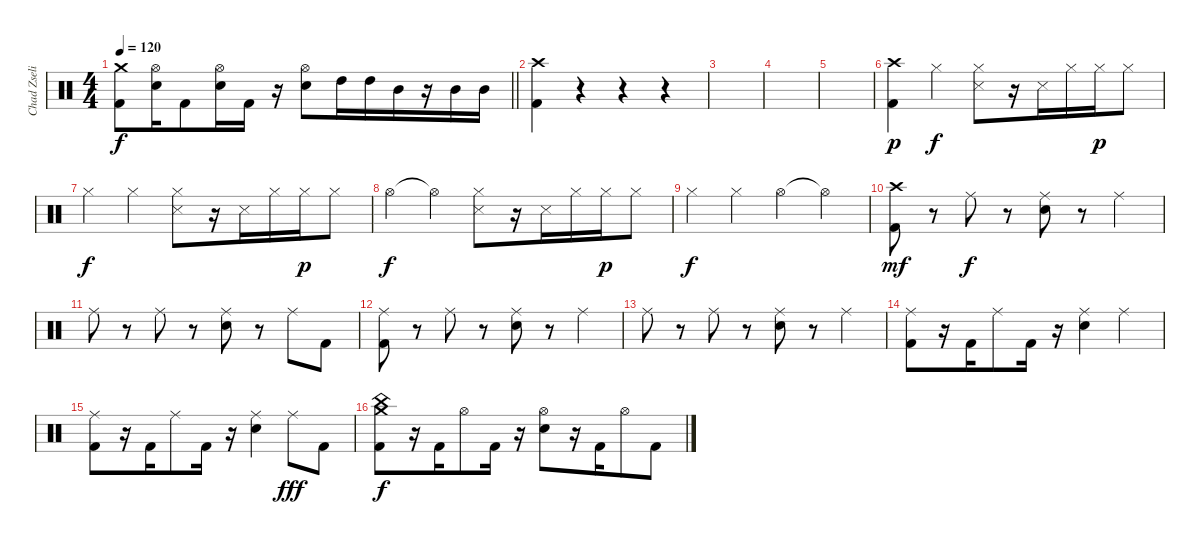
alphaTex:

\track ("Chad Zseliga (Drums)" "Chad Zseli") {instrument percussion}
\staff {score}
\articulation defaults
\ts (4 4)
\tempo 120
\clef neutral
\barLineRight lightlight
\ks c
("Crash medium (hit)" "Kick (hit) 2").8{dy f} ("Hi-Hat (open)" "Snare (hit) 2").16 "Kick (hit) 2".8{beam merge} ("Hi-Hat (open)" "Snare (hit) 2").16 "Kick (hit) 2".16 r.16 ("Hi-Hat (open)" "Snare (hit) 2").8 "High Tom (hit)".16 "High Tom (hit)".16{beam merge} "Mid Tom (hit)".16 r.16 "Mid Tom (hit)".16 "Mid Tom (hit)".16 |
("Crash high (hit)" "Kick (hit) 2").4 r.4 r.4 r.4 |
|
|
|
("Crash high (hit)" "Kick (hit) 2").4{dy p} "Hi-Hat (closed)".4{dy f} ("Hi-Hat (closed)" "Snare (side stick) 3").8 r.16 "Snare (side stick) 3".16{beam merge} "Hi-Hat (closed)".16 "Hi-Hat (closed)".16{dy p} "Hi-Hat (closed)".8 |
"Hi-Hat (closed)".4{dy f} "Hi-Hat (closed)".4 ("Hi-Hat (closed)" "Snare (side stick) 3").8 r.16 "Snare (side stick) 3".16{beam merge} "Hi-Hat (closed)".16 "Hi-Hat (closed)".16{dy p} "Hi-Hat (closed)".8 |
"Hi-Hat (open)".4{dy f} "Hi-Hat (open)"{t}.4 ("Hi-Hat (closed)" "Snare (side stick) 3").8 r.16 "Snare (side stick) 3".16{beam merge} "Hi-Hat (closed)".16 "Hi-Hat (closed)".16{dy p} "Hi-Hat (closed)".8 |
"Hi-Hat (closed)".4{dy f} "Hi-Hat (closed)".4 "Hi-Hat (open)".4 "Hi-Hat (open)"{t}.4 |
("Crash high (hit)" "Kick (hit) 2").8{dy mf} r.8 "Ride (middle)".8{dy f} r.8 ("Ride (middle)" "Snare (hit) 2").8 r.8 "Ride (middle)".4 |
"Ride (middle)".8 r.8 "Ride (middle)".8 r.8 ("Ride (middle)" "Snare (hit) 2").8 r.8 "Ride (middle)".8 "Kick (hit) 2".8 |
("Ride (middle)" "Kick (hit) 2").8 r.8 "Ride (middle)".8 r.8 ("Ride (middle)" "Snare (hit) 2").8 r.8 "Ride (middle)".4 |
"Ride (middle)".8 r.8 "Ride (middle)".8 r.8 ("Ride (middle)" "Snare (hit) 2").8 r.8 "Ride (middle)".4 |
("Ride (middle)" "Kick (hit) 2").8 r.16 "Kick (hit) 2".16{beam merge} "Ride (middle)".8 "Kick (hit) 2".16 r.16 ("Ride (middle)" "Snare (hit) 2").4 "Ride (middle)".4 |
("Ride (middle)" "Kick (hit) 2").8 r.16 "Kick (hit) 2".16{beam merge} "Ride (middle)".8 "Kick (hit) 2".16 r.16 ("Ride (middle)" "Snare (hit) 2").4 "Ride (middle)".8{dy fff} "Kick (hit) 2".8 |
("Crash medium (hit)" "China (hit)" "Kick (hit) 2").8{dy f} r.16 "Kick (hit) 2".16{beam merge} "Hi-Hat (open)".8 "Kick (hit) 2".16 r.16 ("Hi-Hat (open)" "Snare (hit) 2").8 r.16 "Kick (hit) 2".16{beam merge} "Hi-Hat (open)".8 "Kick (hit) 2".8
